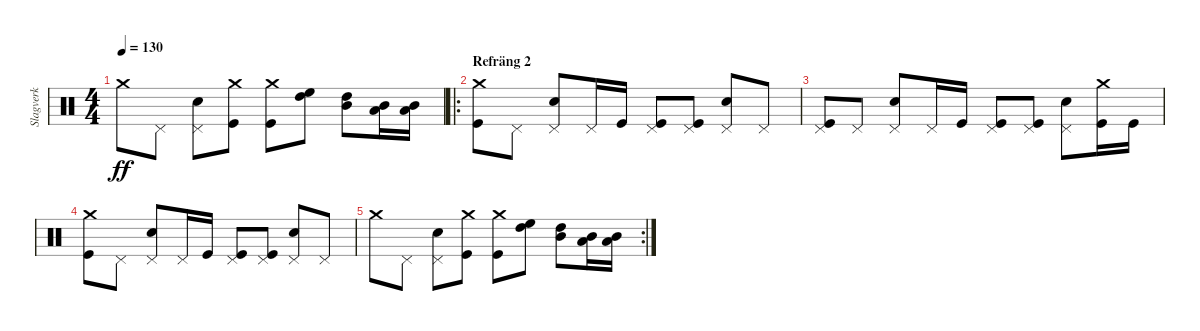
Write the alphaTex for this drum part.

\track ("Slagverk" "Slagverk") {instrument percussion}
\staff {score}
\articulation defaults
\ts (4 4)
\tempo 130
\clef neutral
\ks c "Crash medium (hit)".8{dy ff} "Pedal Hi-Hat (hit)".8
("Electric Snare (hit)" "Pedal Hi-Hat (hit)").8 ("Kick (hit)" "Crash medium (hit)").8 ("Kick (hit)" "Crash medium (hit)").8 ("High Tom (hit)" "High Floor Tom (hit)").8 ("Mid Tom (hit)" "High Tom (hit)").8 ("Low Tom (hit)" "Mid Tom (hit)").16 ("Low Tom (hit)" "Mid Tom (hit)").16 |
\ro
\section ("" "Refräng 2")
("Kick (hit)" "Crash medium (hit)").8 "Pedal Hi-Hat (hit)".8 ("Electric Snare (hit)" "Pedal Hi-Hat (hit)").8 "Pedal Hi-Hat (hit)".16 "Kick (hit)".16 ("Kick (hit)" "Pedal Hi-Hat (hit)").8 ("Kick (hit)" "Pedal Hi-Hat (hit)").8 ("Electric Snare (hit)" "Pedal Hi-Hat (hit)").8 "Pedal Hi-Hat (hit)".8 |
("Kick (hit)" "Pedal Hi-Hat (hit)").8 "Pedal Hi-Hat (hit)".8 ("Electric Snare (hit)" "Pedal Hi-Hat (hit)").8 "Pedal Hi-Hat (hit)".16 "Kick (hit)".16 ("Kick (hit)" "Pedal Hi-Hat (hit)").8 ("Kick (hit)" "Pedal Hi-Hat (hit)").8 ("Electric Snare (hit)" "Pedal Hi-Hat (hit)").8 ("Kick (hit)" "Crash medium (hit)").16 "Kick (hit)".16 |
("Kick (hit)" "Crash medium (hit)").8 "Pedal Hi-Hat (hit)".8 ("Electric Snare (hit)" "Pedal Hi-Hat (hit)").8 "Pedal Hi-Hat (hit)".16 "Kick (hit)".16 ("Kick (hit)" "Pedal Hi-Hat (hit)").8 ("Kick (hit)" "Pedal Hi-Hat (hit)").8 ("Electric Snare (hit)" "Pedal Hi-Hat (hit)").8 "Pedal Hi-Hat (hit)".8 |
\rc 2 "Crash medium (hit)".8 "Pedal Hi-Hat (hit)".8
("Electric Snare (hit)" "Pedal Hi-Hat (hit)").8 ("Kick (hit)" "Crash medium (hit)").8 ("Kick (hit)" "Crash medium (hit)").8 ("High Tom (hit)" "High Floor Tom (hit)").8 ("Mid Tom (hit)" "High Tom (hit)").8 ("Low Tom (hit)" "Mid Tom (hit)").16 ("Low Tom (hit)" "Mid Tom (hit)").16
